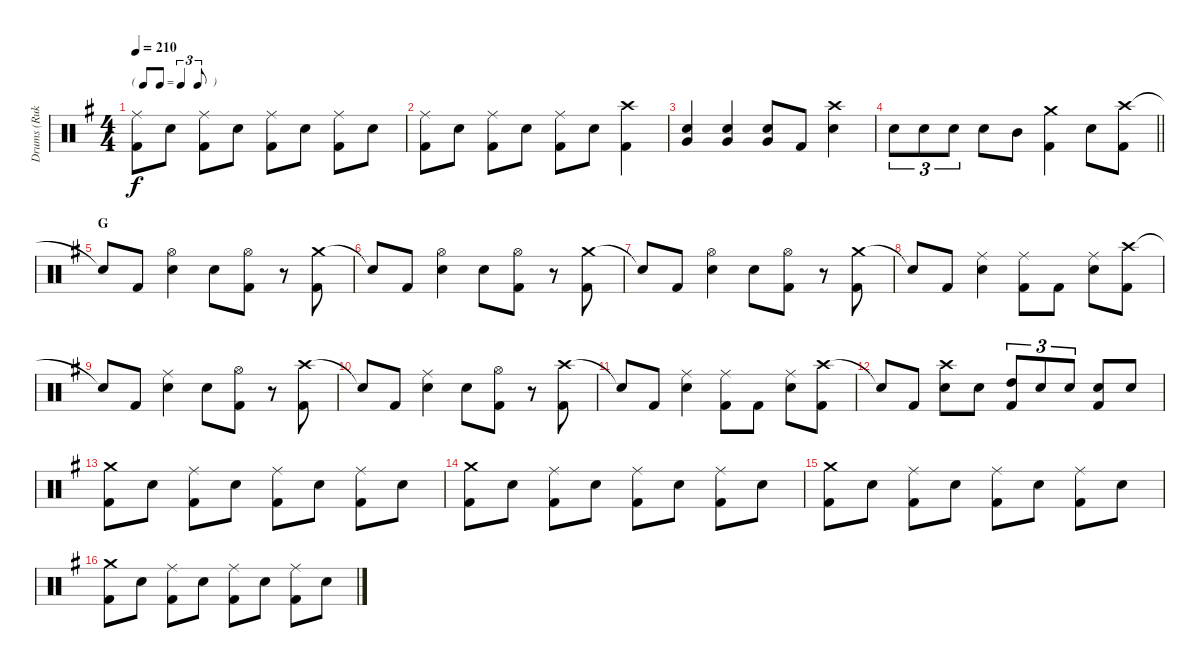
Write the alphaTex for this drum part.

\track ("Drums (Ruka)" "Drums (Ruk") {instrument percussion}
\staff {score}
\articulation defaults
\ts (4 4)
\tf triplet8th
\tempo 210
\clef neutral
\ks g
("Ride (middle)" "Kick (hit) 2").8{dy f} "Electric Snare (hit)".8 ("Ride (middle)" "Kick (hit) 2").8 "Electric Snare (hit)".8 ("Ride (middle)" "Kick (hit) 2").8 "Electric Snare (hit)".8 ("Ride (middle)" "Kick (hit) 2").8 "Electric Snare (hit)".8 |
("Ride (middle)" "Kick (hit) 2").8 "Electric Snare (hit)".8 ("Ride (middle)" "Kick (hit) 2").8 "Electric Snare (hit)".8 ("Ride (middle)" "Kick (hit) 2").8 "Electric Snare (hit)".8 ("Crash high (hit)" "Kick (hit) 2").4 |
("Electric Snare (hit)" "Very Low Tom (hit)").4 ("Electric Snare (hit)" "Very Low Tom (hit)").4 ("Electric Snare (hit)" "Very Low Tom (hit)").8 "Kick (hit) 2".8 ("Crash high (hit)" "Electric Snare (hit)").4 |
\barLineRight lightlight "Electric Snare (hit)".8{tu (3 2)} "Electric Snare (hit)".8{tu (3 2)} "Electric Snare (hit)".8{tu (3 2)} "Electric Snare (hit)".8 "Mid Tom (hit)".8
("Crash medium (hit)" "Kick (hit) 2").4 "Electric Snare (hit)".8 ("Crash high (hit)" "Kick (hit) 2").8 |
\section ("" "G")
"Snare (hit)"{t}.8 "Kick (hit) 2".8 ("Hi-Hat (open)" "Electric Snare (hit)").4 "Electric Snare (hit)".8 ("Hi-Hat (open)" "Kick (hit) 2").8 r.8 ("Crash medium (hit)" "Kick (hit) 2").8 |
"Snare (hit)"{t}.8 "Kick (hit) 2".8 ("Hi-Hat (open)" "Electric Snare (hit)").4 "Electric Snare (hit)".8 ("Hi-Hat (open)" "Kick (hit) 2").8 r.8 ("Crash medium (hit)" "Kick (hit) 2").8 |
"Snare (hit)"{t}.8 "Kick (hit) 2".8 ("Hi-Hat (open)" "Electric Snare (hit)").4 "Electric Snare (hit)".8 ("Hi-Hat (open)" "Kick (hit) 2").8 r.8 ("Crash medium (hit)" "Kick (hit) 2").8 |
"Snare (hit)"{t}.8 "Kick (hit) 2".8 ("Ride (middle)" "Electric Snare (hit)").4 ("Ride (middle)" "Kick (hit) 2").8 "Kick (hit) 2".8 ("Ride (middle)" "Electric Snare (hit)").8 ("Crash high (hit)" "Kick (hit) 2").8 |
"Snare (hit)"{t}.8 "Kick (hit) 2".8 ("Ride (middle)" "Electric Snare (hit)").4 "Electric Snare (hit)".8 ("Hi-Hat (open)" "Kick (hit) 2").8 r.8 ("Crash high (hit)" "Kick (hit) 2").8 |
"Snare (hit)"{t}.8 "Kick (hit) 2".8 ("Ride (middle)" "Electric Snare (hit)").4 "Electric Snare (hit)".8 ("Hi-Hat (open)" "Kick (hit) 2").8 r.8 ("Crash high (hit)" "Kick (hit) 2").8 |
"Snare (hit)"{t}.8 "Kick (hit) 2".8 ("Ride (middle)" "Electric Snare (hit)").4 ("Ride (middle)" "Kick (hit) 2").8 "Kick (hit) 2".8 ("Ride (middle)" "Electric Snare (hit)").8 ("Crash high (hit)" "Kick (hit) 2").8 |
"Snare (hit)"{t}.8 "Kick (hit) 2".8 ("Crash high (hit)" "Electric Snare (hit)").8 "Electric Snare (hit)".8 ("High Tom (hit)" "Kick (hit) 2").8{tu (3 2)} "Electric Snare (hit)".8{tu (3 2)} "Electric Snare (hit)".8{tu (3 2)} ("Electric Snare (hit)" "Kick (hit) 2").8 "Electric Snare (hit)".8 |
("Crash medium (hit)" "Kick (hit) 2").8 "Electric Snare (hit)".8 ("Ride (middle)" "Kick (hit) 2").8 "Electric Snare (hit)".8 ("Ride (middle)" "Kick (hit) 2").8 "Electric Snare (hit)".8 ("Ride (middle)" "Kick (hit) 2").8 "Electric Snare (hit)".8 |
("Crash medium (hit)" "Kick (hit) 2").8 "Electric Snare (hit)".8 ("Ride (middle)" "Kick (hit) 2").8 "Electric Snare (hit)".8 ("Ride (middle)" "Kick (hit) 2").8 "Electric Snare (hit)".8 ("Ride (middle)" "Kick (hit) 2").8 "Electric Snare (hit)".8 |
("Crash medium (hit)" "Kick (hit) 2").8 "Electric Snare (hit)".8 ("Ride (middle)" "Kick (hit) 2").8 "Electric Snare (hit)".8 ("Ride (middle)" "Kick (hit) 2").8 "Electric Snare (hit)".8 ("Ride (middle)" "Kick (hit) 2").8 "Electric Snare (hit)".8 |
("Crash medium (hit)" "Kick (hit) 2").8 "Electric Snare (hit)".8 ("Ride (middle)" "Kick (hit) 2").8 "Electric Snare (hit)".8 ("Ride (middle)" "Kick (hit) 2").8 "Electric Snare (hit)".8 ("Ride (middle)" "Kick (hit) 2").8 "Electric Snare (hit)".8
